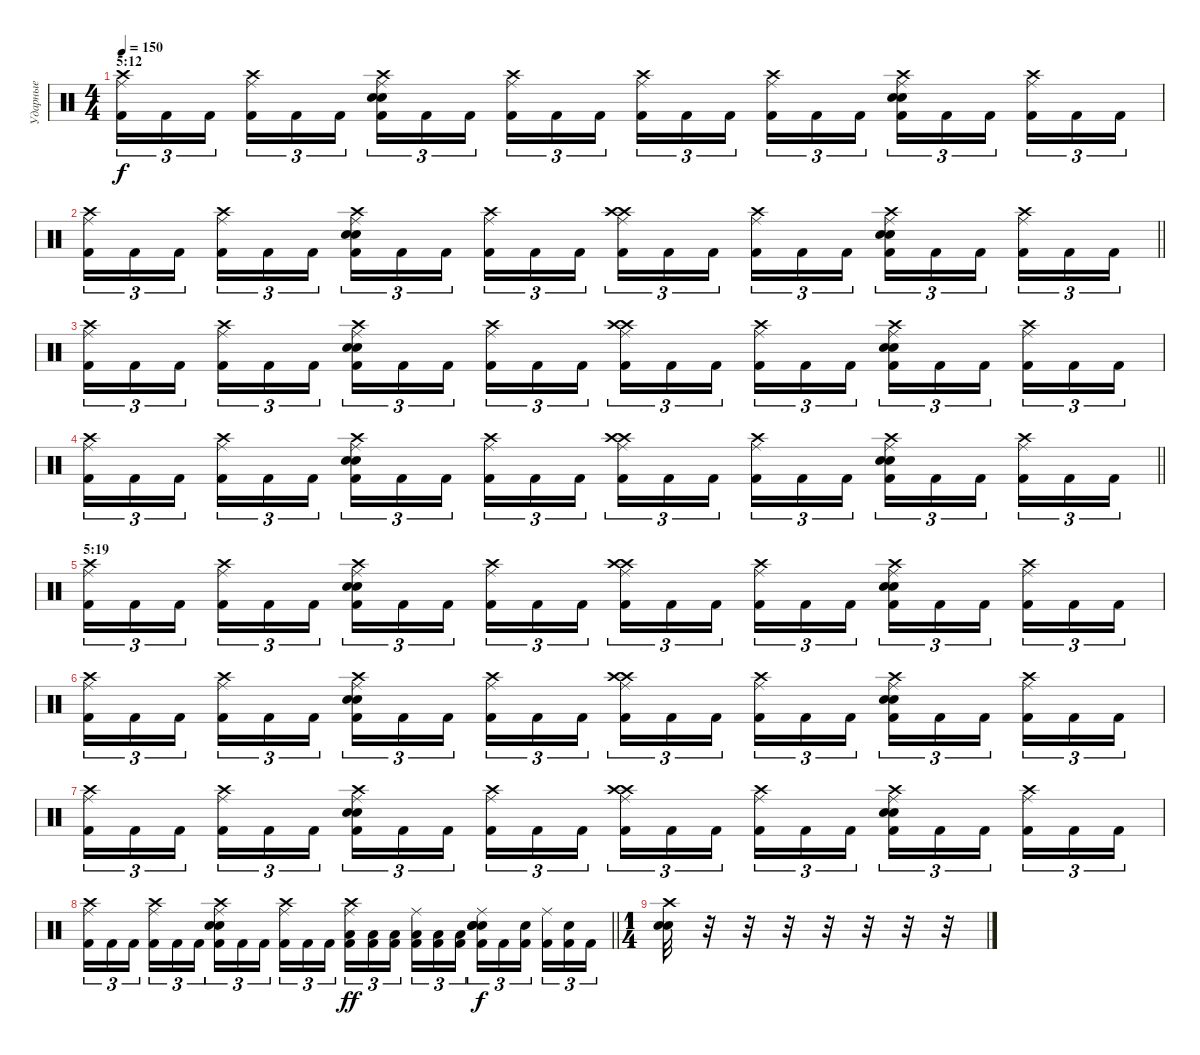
\track ("Ударные" "Ударные") {instrument percussion}
\staff {score}
\articulation defaults
\ts (4 4)
\section ("" "5:12")
\tempo 150
\clef neutral
\ks c
("Ride (middle)" "Crash high (hit)" "Kick (hit) 2").16{tu (3 2) dy f} "Kick (hit) 2".16{tu (3 2)} "Kick (hit) 2".16{tu (3 2) beam splitsecondary} ("Ride (middle)" "Kick (hit) 2" "Crash high (hit)").16{tu (3 2)} "Kick (hit) 2".16{tu (3 2)} "Kick (hit) 2".16{tu (3 2)} ("Ride (middle)" "Snare (hit) 2" "Electric Snare (hit)" "Kick (hit) 2" "Crash high (hit)").16{tu (3 2)} "Kick (hit) 2".16{tu (3 2)} "Kick (hit) 2".16{tu (3 2) beam splitsecondary} ("Ride (middle)" "Kick (hit) 2" "Crash high (hit)").16{tu (3 2)} "Kick (hit) 2".16{tu (3 2)} "Kick (hit) 2".16{tu (3 2)} ("Ride (middle)" "Crash high (hit)" "Kick (hit) 2").16{tu (3 2)} "Kick (hit) 2".16{tu (3 2)} "Kick (hit) 2".16{tu (3 2) beam splitsecondary} ("Ride (middle)" "Kick (hit) 2" "Crash high (hit)").16{tu (3 2)} "Kick (hit) 2".16{tu (3 2)} "Kick (hit) 2".16{tu (3 2)} ("Ride (middle)" "Snare (hit) 2" "Electric Snare (hit)" "Kick (hit) 2" "Crash high (hit)").16{tu (3 2)} "Kick (hit) 2".16{tu (3 2)} "Kick (hit) 2".16{tu (3 2) beam splitsecondary} ("Ride (middle)" "Kick (hit) 2" "Crash high (hit)").16{tu (3 2)} "Kick (hit) 2".16{tu (3 2)} "Kick (hit) 2".16{tu (3 2)} |
\barLineRight lightlight
("Ride (middle)" "Crash high (hit)" "Kick (hit) 2").16{tu (3 2)} "Kick (hit) 2".16{tu (3 2)} "Kick (hit) 2".16{tu (3 2) beam splitsecondary} ("Ride (middle)" "Kick (hit) 2" "Crash high (hit)").16{tu (3 2)} "Kick (hit) 2".16{tu (3 2)} "Kick (hit) 2".16{tu (3 2)} ("Ride (middle)" "Snare (hit) 2" "Electric Snare (hit)" "Kick (hit) 2" "Crash high (hit)").16{tu (3 2)} "Kick (hit) 2".16{tu (3 2)} "Kick (hit) 2".16{tu (3 2) beam splitsecondary} ("Ride (middle)" "Kick (hit) 2" "Crash high (hit)").16{tu (3 2)} "Kick (hit) 2".16{tu (3 2)} "Kick (hit) 2".16{tu (3 2)} ("Ride (middle)" "Crash high (hit)" "Kick (hit) 2" "Crash high (hit)").16{tu (3 2)} "Kick (hit) 2".16{tu (3 2)} "Kick (hit) 2".16{tu (3 2) beam splitsecondary} ("Ride (middle)" "Kick (hit) 2" "Crash high (hit)").16{tu (3 2)} "Kick (hit) 2".16{tu (3 2)} "Kick (hit) 2".16{tu (3 2)} ("Ride (middle)" "Snare (hit) 2" "Electric Snare (hit)" "Kick (hit) 2" "Crash high (hit)").16{tu (3 2)} "Kick (hit) 2".16{tu (3 2)} "Kick (hit) 2".16{tu (3 2) beam splitsecondary} ("Ride (middle)" "Kick (hit) 2" "Crash high (hit)").16{tu (3 2)} "Kick (hit) 2".16{tu (3 2)} "Kick (hit) 2".16{tu (3 2)} |
("Ride (middle)" "Crash high (hit)" "Kick (hit) 2").16{tu (3 2)} "Kick (hit) 2".16{tu (3 2)} "Kick (hit) 2".16{tu (3 2) beam splitsecondary} ("Ride (middle)" "Kick (hit) 2" "Crash high (hit)").16{tu (3 2)} "Kick (hit) 2".16{tu (3 2)} "Kick (hit) 2".16{tu (3 2)} ("Ride (middle)" "Snare (hit) 2" "Electric Snare (hit)" "Kick (hit) 2" "Crash high (hit)").16{tu (3 2)} "Kick (hit) 2".16{tu (3 2)} "Kick (hit) 2".16{tu (3 2) beam splitsecondary} ("Ride (middle)" "Kick (hit) 2" "Crash high (hit)").16{tu (3 2)} "Kick (hit) 2".16{tu (3 2)} "Kick (hit) 2".16{tu (3 2)} ("Ride (middle)" "Crash high (hit)" "Kick (hit) 2" "Crash high (hit)").16{tu (3 2)} "Kick (hit) 2".16{tu (3 2)} "Kick (hit) 2".16{tu (3 2) beam splitsecondary} ("Ride (middle)" "Kick (hit) 2" "Crash high (hit)").16{tu (3 2)} "Kick (hit) 2".16{tu (3 2)} "Kick (hit) 2".16{tu (3 2)} ("Ride (middle)" "Snare (hit) 2" "Electric Snare (hit)" "Kick (hit) 2" "Crash high (hit)").16{tu (3 2)} "Kick (hit) 2".16{tu (3 2)} "Kick (hit) 2".16{tu (3 2) beam splitsecondary} ("Ride (middle)" "Kick (hit) 2" "Crash high (hit)").16{tu (3 2)} "Kick (hit) 2".16{tu (3 2)} "Kick (hit) 2".16{tu (3 2)} |
\barLineRight lightlight
("Ride (middle)" "Crash high (hit)" "Kick (hit) 2").16{tu (3 2)} "Kick (hit) 2".16{tu (3 2)} "Kick (hit) 2".16{tu (3 2) beam splitsecondary} ("Ride (middle)" "Kick (hit) 2" "Crash high (hit)").16{tu (3 2)} "Kick (hit) 2".16{tu (3 2)} "Kick (hit) 2".16{tu (3 2)} ("Ride (middle)" "Snare (hit) 2" "Electric Snare (hit)" "Kick (hit) 2" "Crash high (hit)").16{tu (3 2)} "Kick (hit) 2".16{tu (3 2)} "Kick (hit) 2".16{tu (3 2) beam splitsecondary} ("Ride (middle)" "Kick (hit) 2" "Crash high (hit)").16{tu (3 2)} "Kick (hit) 2".16{tu (3 2)} "Kick (hit) 2".16{tu (3 2)} ("Ride (middle)" "Crash high (hit)" "Kick (hit) 2" "Crash high (hit)").16{tu (3 2)} "Kick (hit) 2".16{tu (3 2)} "Kick (hit) 2".16{tu (3 2) beam splitsecondary} ("Ride (middle)" "Kick (hit) 2" "Crash high (hit)").16{tu (3 2)} "Kick (hit) 2".16{tu (3 2)} "Kick (hit) 2".16{tu (3 2)} ("Ride (middle)" "Snare (hit) 2" "Electric Snare (hit)" "Kick (hit) 2" "Crash high (hit)").16{tu (3 2)} "Kick (hit) 2".16{tu (3 2)} "Kick (hit) 2".16{tu (3 2) beam splitsecondary} ("Ride (middle)" "Kick (hit) 2" "Crash high (hit)").16{tu (3 2)} "Kick (hit) 2".16{tu (3 2)} "Kick (hit) 2".16{tu (3 2)} |
\section ("" "5:19")
("Ride (middle)" "Crash high (hit)" "Kick (hit) 2").16{tu (3 2)} "Kick (hit) 2".16{tu (3 2)} "Kick (hit) 2".16{tu (3 2) beam splitsecondary} ("Ride (middle)" "Kick (hit) 2" "Crash high (hit)").16{tu (3 2)} "Kick (hit) 2".16{tu (3 2)} "Kick (hit) 2".16{tu (3 2)} ("Ride (middle)" "Snare (hit) 2" "Electric Snare (hit)" "Kick (hit) 2" "Crash high (hit)").16{tu (3 2)} "Kick (hit) 2".16{tu (3 2)} "Kick (hit) 2".16{tu (3 2) beam splitsecondary} ("Ride (middle)" "Kick (hit) 2" "Crash high (hit)").16{tu (3 2)} "Kick (hit) 2".16{tu (3 2)} "Kick (hit) 2".16{tu (3 2)} ("Ride (middle)" "Crash high (hit)" "Kick (hit) 2" "Crash high (hit)").16{tu (3 2)} "Kick (hit) 2".16{tu (3 2)} "Kick (hit) 2".16{tu (3 2) beam splitsecondary} ("Ride (middle)" "Kick (hit) 2" "Crash high (hit)").16{tu (3 2)} "Kick (hit) 2".16{tu (3 2)} "Kick (hit) 2".16{tu (3 2)} ("Ride (middle)" "Snare (hit) 2" "Electric Snare (hit)" "Kick (hit) 2" "Crash high (hit)").16{tu (3 2)} "Kick (hit) 2".16{tu (3 2)} "Kick (hit) 2".16{tu (3 2) beam splitsecondary} ("Ride (middle)" "Kick (hit) 2" "Crash high (hit)").16{tu (3 2)} "Kick (hit) 2".16{tu (3 2)} "Kick (hit) 2".16{tu (3 2)} |
("Ride (middle)" "Crash high (hit)" "Kick (hit) 2").16{tu (3 2)} "Kick (hit) 2".16{tu (3 2)} "Kick (hit) 2".16{tu (3 2) beam splitsecondary} ("Ride (middle)" "Kick (hit) 2" "Crash high (hit)").16{tu (3 2)} "Kick (hit) 2".16{tu (3 2)} "Kick (hit) 2".16{tu (3 2)} ("Ride (middle)" "Snare (hit) 2" "Electric Snare (hit)" "Kick (hit) 2" "Crash high (hit)").16{tu (3 2)} "Kick (hit) 2".16{tu (3 2)} "Kick (hit) 2".16{tu (3 2) beam splitsecondary} ("Ride (middle)" "Kick (hit) 2" "Crash high (hit)").16{tu (3 2)} "Kick (hit) 2".16{tu (3 2)} "Kick (hit) 2".16{tu (3 2)} ("Ride (middle)" "Crash high (hit)" "Kick (hit) 2" "Crash high (hit)").16{tu (3 2)} "Kick (hit) 2".16{tu (3 2)} "Kick (hit) 2".16{tu (3 2) beam splitsecondary} ("Ride (middle)" "Kick (hit) 2" "Crash high (hit)").16{tu (3 2)} "Kick (hit) 2".16{tu (3 2)} "Kick (hit) 2".16{tu (3 2)} ("Ride (middle)" "Snare (hit) 2" "Electric Snare (hit)" "Kick (hit) 2" "Crash high (hit)").16{tu (3 2)} "Kick (hit) 2".16{tu (3 2)} "Kick (hit) 2".16{tu (3 2) beam splitsecondary} ("Ride (middle)" "Kick (hit) 2" "Crash high (hit)").16{tu (3 2)} "Kick (hit) 2".16{tu (3 2)} "Kick (hit) 2".16{tu (3 2)} |
("Ride (middle)" "Crash high (hit)" "Kick (hit) 2").16{tu (3 2)} "Kick (hit) 2".16{tu (3 2)} "Kick (hit) 2".16{tu (3 2) beam splitsecondary} ("Ride (middle)" "Kick (hit) 2" "Crash high (hit)").16{tu (3 2)} "Kick (hit) 2".16{tu (3 2)} "Kick (hit) 2".16{tu (3 2)} ("Ride (middle)" "Snare (hit) 2" "Electric Snare (hit)" "Kick (hit) 2" "Crash high (hit)").16{tu (3 2)} "Kick (hit) 2".16{tu (3 2)} "Kick (hit) 2".16{tu (3 2) beam splitsecondary} ("Ride (middle)" "Kick (hit) 2" "Crash high (hit)").16{tu (3 2)} "Kick (hit) 2".16{tu (3 2)} "Kick (hit) 2".16{tu (3 2)} ("Ride (middle)" "Crash high (hit)" "Kick (hit) 2" "Crash high (hit)").16{tu (3 2)} "Kick (hit) 2".16{tu (3 2)} "Kick (hit) 2".16{tu (3 2) beam splitsecondary} ("Ride (middle)" "Kick (hit) 2" "Crash high (hit)").16{tu (3 2)} "Kick (hit) 2".16{tu (3 2)} "Kick (hit) 2".16{tu (3 2)} ("Ride (middle)" "Snare (hit) 2" "Electric Snare (hit)" "Kick (hit) 2" "Crash high (hit)").16{tu (3 2)} "Kick (hit) 2".16{tu (3 2)} "Kick (hit) 2".16{tu (3 2) beam splitsecondary} ("Ride (middle)" "Kick (hit) 2" "Crash high (hit)").16{tu (3 2)} "Kick (hit) 2".16{tu (3 2)} "Kick (hit) 2".16{tu (3 2)} |
\barLineRight lightlight
("Ride (middle)" "Crash high (hit)" "Kick (hit) 2").16{tu (3 2)} "Kick (hit) 2".16{tu (3 2)} "Kick (hit) 2".16{tu (3 2) beam splitsecondary} ("Ride (middle)" "Kick (hit) 2" "Crash high (hit)").16{tu (3 2)} "Kick (hit) 2".16{tu (3 2)} "Kick (hit) 2".16{tu (3 2)} ("Ride (middle)" "Snare (hit) 2" "Electric Snare (hit)" "Kick (hit) 2" "Crash high (hit)").16{tu (3 2)} "Kick (hit) 2".16{tu (3 2)} "Kick (hit) 2".16{tu (3 2) beam splitsecondary} ("Ride (middle)" "Kick (hit) 2" "Crash high (hit)").16{tu (3 2)} "Kick (hit) 2".16{tu (3 2)} "Kick (hit) 2".16{tu (3 2)} ("Ride (middle)" "Crash high (hit)" "Kick (hit) 2" "Low Tom (hit)").16{tu (3 2) dy ff} ("Kick (hit) 2" "Low Tom (hit)").16{tu (3 2)} ("Kick (hit) 2" "Low Tom (hit)").16{tu (3 2) beam splitsecondary} ("Ride (middle)" "Kick (hit) 2" "Low Tom (hit)").16{tu (3 2)} ("Kick (hit) 2" "Low Tom (hit)").16{tu (3 2)} ("Kick (hit) 2" "Low Tom (hit)").16{tu (3 2)} ("Ride (middle)" "Snare (hit) 2" "Electric Snare (hit)" "Kick (hit) 2" "Electric Snare (hit)").16{tu (3 2) dy f} "Kick (hit) 2".16{tu (3 2)} ("Kick (hit) 2" "Electric Snare (hit)").16{tu (3 2) beam splitsecondary} ("Ride (middle)" "Kick (hit) 2").16{tu (3 2)} ("Kick (hit) 2" "Electric Snare (hit)").16{tu (3 2)} "Kick (hit) 2".16{tu (3 2)} |
\ts (1 4)
("Snare (hit) 2" "Electric Snare (hit)" "Crash high (hit)").32 r.32 r.32 r.32 r.32 r.32 r.32 r.32
